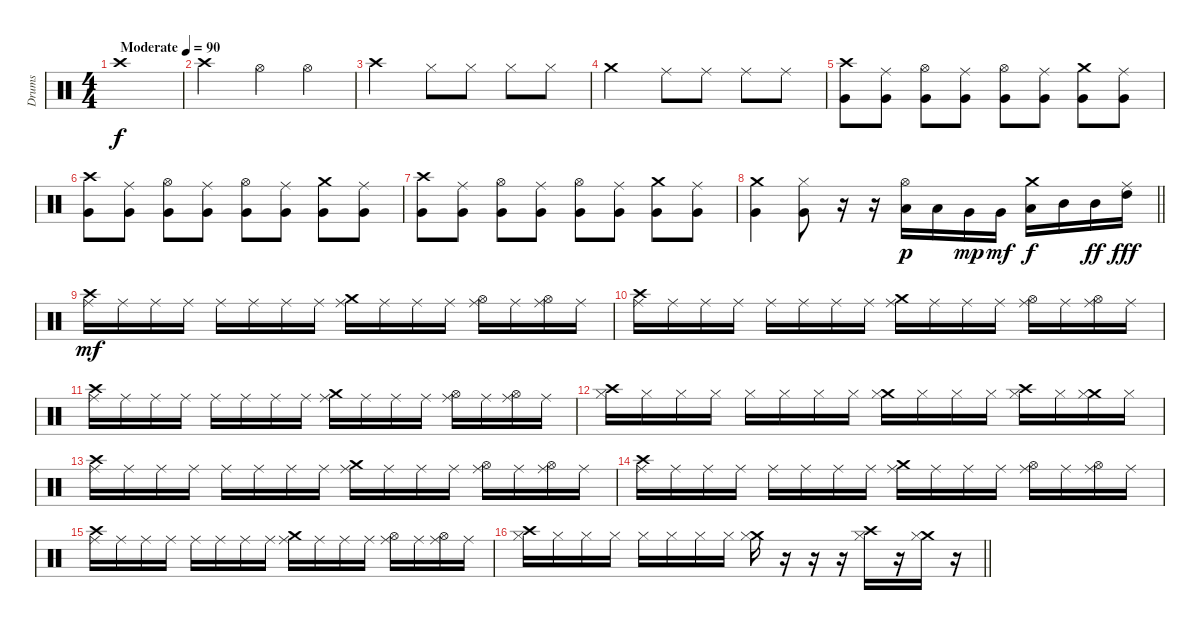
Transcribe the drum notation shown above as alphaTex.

\track ("Drums" "Drums") {instrument percussion}
\staff {score}
\articulation defaults
\ts (4 4)
\tempo (90 "Moderate")
\clef neutral
\ks c "Crash high (hit)".1{dy f}
|
"Crash high (hit)".2 "Hi-Hat (open)".4 "Hi-Hat (open)".4 |
"Crash high (hit)".2 "Hi-Hat (closed)".8 "Hi-Hat (closed)".8 "Hi-Hat (closed)".8 "Hi-Hat (closed)".8 |
"Crash medium (hit)".2 "Ride (middle)".8 "Ride (middle)".8 "Ride (middle)".8 "Ride (middle)".8 |
("Crash high (hit)" "Very Low Tom (hit)").8 ("Ride (middle)" "Very Low Tom (hit)").8 ("Hi-Hat (open)" "Very Low Tom (hit)").8 ("Ride (middle)" "Very Low Tom (hit)").8 ("Hi-Hat (open)" "Very Low Tom (hit)").8 ("Ride (middle)" "Very Low Tom (hit)").8 ("Crash medium (hit)" "Very Low Tom (hit)").8 ("Ride (middle)" "Very Low Tom (hit)").8 |
("Crash high (hit)" "Very Low Tom (hit)").8 ("Ride (middle)" "Very Low Tom (hit)").8 ("Hi-Hat (open)" "Very Low Tom (hit)").8 ("Ride (middle)" "Very Low Tom (hit)").8 ("Hi-Hat (open)" "Very Low Tom (hit)").8 ("Ride (middle)" "Very Low Tom (hit)").8 ("Crash medium (hit)" "Very Low Tom (hit)").8 ("Ride (middle)" "Very Low Tom (hit)").8 |
("Crash high (hit)" "Very Low Tom (hit)").8 ("Ride (middle)" "Very Low Tom (hit)").8 ("Hi-Hat (open)" "Very Low Tom (hit)").8 ("Ride (middle)" "Very Low Tom (hit)").8 ("Hi-Hat (open)" "Very Low Tom (hit)").8 ("Ride (middle)" "Very Low Tom (hit)").8 ("Crash medium (hit)" "Very Low Tom (hit)").8 ("Ride (middle)" "Very Low Tom (hit)").8 |
\barLineRight lightlight
("Crash medium (hit)" "Very Low Tom (hit)").4 ("Hi-Hat (closed)" "Very Low Tom (hit)").8 r.16 r.16 ("Hi-Hat (open)" "Low Floor Tom (hit)").16{dy p} "Low Floor Tom (hit)".16 "Very Low Tom (hit)".16{dy mp} "Very Low Tom (hit)".16{dy mf} ("Crash medium (hit)" "Low Tom (hit)").16{dy f} "Mid Tom (hit)".16 "Mid Tom (hit)".16{dy ff} ("Ride (middle)" "High Tom (hit)").16{dy fff} |
\section ("" "")
("Crash high (hit)" "Ride (middle)").16{dy mf} "Ride (middle)".16 "Ride (middle)".16 "Ride (middle)".16 "Ride (middle)".16 "Ride (middle)".16 "Ride (middle)".16 "Ride (middle)".16 ("Crash medium (hit)" "Ride (middle)").16 "Ride (middle)".16 "Ride (middle)".16 "Ride (middle)".16 ("Hi-Hat (open)" "Ride (middle)").16 "Ride (middle)".16 ("Hi-Hat (open)" "Ride (middle)").16 "Ride (middle)".16 |
("Crash high (hit)" "Ride (middle)").16 "Ride (middle)".16 "Ride (middle)".16 "Ride (middle)".16 "Ride (middle)".16 "Ride (middle)".16 "Ride (middle)".16 "Ride (middle)".16 ("Crash medium (hit)" "Ride (middle)").16 "Ride (middle)".16 "Ride (middle)".16 "Ride (middle)".16 ("Hi-Hat (open)" "Ride (middle)").16 "Ride (middle)".16 ("Hi-Hat (open)" "Ride (middle)").16 "Ride (middle)".16 |
("Crash high (hit)" "Ride (middle)").16 "Ride (middle)".16 "Ride (middle)".16 "Ride (middle)".16 "Ride (middle)".16 "Ride (middle)".16 "Ride (middle)".16 "Ride (middle)".16 ("Crash medium (hit)" "Ride (middle)").16 "Ride (middle)".16 "Ride (middle)".16 "Ride (middle)".16 ("Hi-Hat (open)" "Ride (middle)").16 "Ride (middle)".16 ("Hi-Hat (open)" "Ride (middle)").16 "Ride (middle)".16 |
("Crash high (hit)" "Hi-Hat (closed)").16 "Hi-Hat (closed)".16 "Hi-Hat (closed)".16 "Hi-Hat (closed)".16 "Hi-Hat (closed)".16 "Hi-Hat (closed)".16 "Hi-Hat (closed)".16 "Hi-Hat (closed)".16 ("Crash medium (hit)" "Hi-Hat (closed)").16 "Hi-Hat (closed)".16 "Hi-Hat (closed)".16 "Hi-Hat (closed)".16 ("Crash high (hit)" "Hi-Hat (closed)").16 "Hi-Hat (closed)".16 ("Crash medium (hit)" "Hi-Hat (closed)").16 "Hi-Hat (closed)".16 |
("Crash high (hit)" "Ride (middle)").16 "Ride (middle)".16 "Ride (middle)".16 "Ride (middle)".16 "Ride (middle)".16 "Ride (middle)".16 "Ride (middle)".16 "Ride (middle)".16 ("Crash medium (hit)" "Ride (middle)").16 "Ride (middle)".16 "Ride (middle)".16 "Ride (middle)".16 ("Hi-Hat (open)" "Ride (middle)").16 "Ride (middle)".16 ("Hi-Hat (open)" "Ride (middle)").16 "Ride (middle)".16 |
("Crash high (hit)" "Ride (middle)").16 "Ride (middle)".16 "Ride (middle)".16 "Ride (middle)".16 "Ride (middle)".16 "Ride (middle)".16 "Ride (middle)".16 "Ride (middle)".16 ("Crash medium (hit)" "Ride (middle)").16 "Ride (middle)".16 "Ride (middle)".16 "Ride (middle)".16 ("Hi-Hat (open)" "Ride (middle)").16 "Ride (middle)".16 ("Hi-Hat (open)" "Ride (middle)").16 "Ride (middle)".16 |
("Crash high (hit)" "Ride (middle)").16 "Ride (middle)".16 "Ride (middle)".16 "Ride (middle)".16 "Ride (middle)".16 "Ride (middle)".16 "Ride (middle)".16 "Ride (middle)".16 ("Crash medium (hit)" "Ride (middle)").16 "Ride (middle)".16 "Ride (middle)".16 "Ride (middle)".16 ("Hi-Hat (open)" "Ride (middle)").16 "Ride (middle)".16 ("Hi-Hat (open)" "Ride (middle)").16 "Ride (middle)".16 |
\barLineRight lightlight
("Crash high (hit)" "Hi-Hat (closed)").16 "Hi-Hat (closed)".16 "Hi-Hat (closed)".16 "Hi-Hat (closed)".16 "Hi-Hat (closed)".16 "Hi-Hat (closed)".16 "Hi-Hat (closed)".16 "Hi-Hat (closed)".16 ("Crash medium (hit)" "Hi-Hat (closed)").16 r.16 r.16 r.16 ("Crash high (hit)" "Hi-Hat (closed)").16 r.16 ("Crash medium (hit)" "Hi-Hat (closed)").16 r.16
